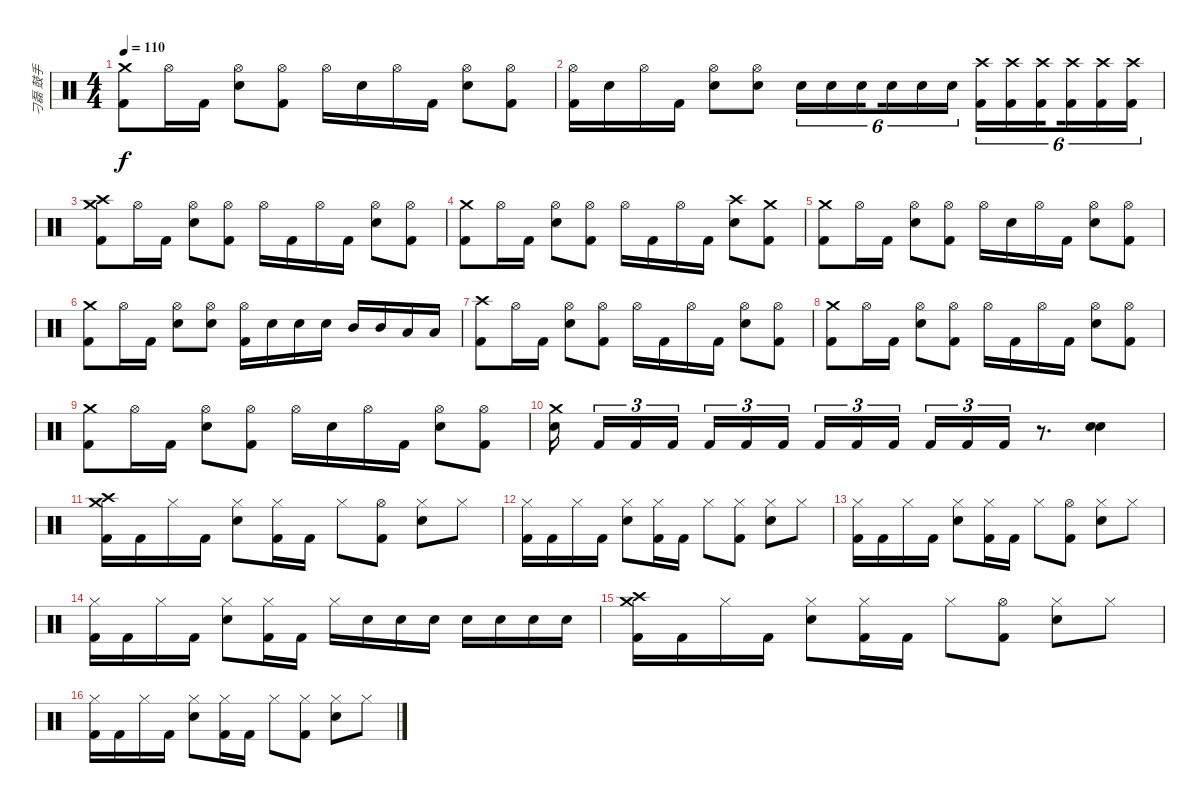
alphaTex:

\track ("刁磊 鼓手" "刁磊 鼓手") {instrument percussion}
\staff {score}
\articulation defaults
\ts (4 4)
\tempo 110
\clef neutral
\ks c
("Crash medium (hit)" "Kick (hit) 2").8{dy f} "Hi-Hat (open)".16 "Kick (hit) 2".16 ("Hi-Hat (open)" "Snare (hit) 2").8 ("Hi-Hat (open)" "Kick (hit) 2").8 "Hi-Hat (open)".16 "Snare (hit) 2".16 "Hi-Hat (open)".16 "Kick (hit) 2".16 ("Hi-Hat (open)" "Snare (hit) 2").8 ("Hi-Hat (open)" "Kick (hit) 2").8 |
("Hi-Hat (open)" "Kick (hit) 2").16 "Snare (hit) 2".16 "Hi-Hat (open)".16 "Kick (hit) 2".16 ("Hi-Hat (open)" "Snare (hit) 2").8 ("Hi-Hat (open)" "Snare (hit) 2").8 "Snare (hit) 2".16{tu (6 4)} "Snare (hit) 2".16{tu (6 4)} "Snare (hit) 2".16{tu (6 4) beam splitsecondary} "Snare (hit) 2".16{tu (6 4)} "Snare (hit) 2".16{tu (6 4)} "Snare (hit) 2".16{tu (6 4)} ("Crash high (hit)" "Kick (hit) 2").16{tu (6 4)} ("Crash high (hit)" "Kick (hit) 2").16{tu (6 4)} ("Crash high (hit)" "Kick (hit) 2").16{tu (6 4) beam splitsecondary} ("Crash high (hit)" "Kick (hit) 2").16{tu (6 4)} ("Crash high (hit)" "Kick (hit) 2").16{tu (6 4)} ("Crash high (hit)" "Kick (hit) 2").16{tu (6 4)} |
("Crash high (hit)" "Crash medium (hit)" "Kick (hit) 2").8 "Hi-Hat (open)".16 "Kick (hit) 2".16 ("Hi-Hat (open)" "Snare (hit) 2").8 ("Hi-Hat (open)" "Kick (hit) 2").8 "Hi-Hat (open)".16 "Kick (hit) 2".16 "Hi-Hat (open)".16 "Kick (hit) 2".16 ("Hi-Hat (open)" "Snare (hit) 2").8 ("Hi-Hat (open)" "Kick (hit) 2").8 |
("Crash medium (hit)" "Kick (hit) 2").8 "Hi-Hat (open)".16 "Kick (hit) 2".16 ("Hi-Hat (open)" "Snare (hit) 2").8 ("Hi-Hat (open)" "Kick (hit) 2").8 "Hi-Hat (open)".16 "Kick (hit) 2".16 "Hi-Hat (open)".16 "Kick (hit) 2".16 ("Crash high (hit)" "Snare (hit) 2").8 ("Crash medium (hit)" "Kick (hit) 2").8 |
("Crash medium (hit)" "Kick (hit) 2").8 "Hi-Hat (open)".16 "Kick (hit) 2".16 ("Hi-Hat (open)" "Snare (hit) 2").8 ("Hi-Hat (open)" "Kick (hit) 2").8 "Hi-Hat (open)".16 "Snare (hit) 2".16 "Hi-Hat (open)".16 "Kick (hit) 2".16 ("Hi-Hat (open)" "Snare (hit) 2").8 ("Hi-Hat (open)" "Kick (hit) 2").8 |
("Crash medium (hit)" "Kick (hit) 2").8 "Hi-Hat (open)".16 "Kick (hit) 2".16 ("Hi-Hat (open)" "Snare (hit) 2").8 ("Hi-Hat (open)" "Snare (hit) 2").8 ("Hi-Hat (open)" "Kick (hit) 2").16 "Snare (hit) 2".16 "Snare (hit) 2".16 "Snare (hit) 2".16 "Mid Tom (hit)".16 "Mid Tom (hit)".16 "Low Tom (hit)".16 "Low Tom (hit)".16 |
("Crash high (hit)" "Kick (hit) 2").8 "Hi-Hat (open)".16 "Kick (hit) 2".16 ("Hi-Hat (open)" "Snare (hit) 2").8 ("Hi-Hat (open)" "Kick (hit) 2").8 "Hi-Hat (open)".16 "Kick (hit) 2".16 "Hi-Hat (open)".16 "Kick (hit) 2".16 ("Hi-Hat (open)" "Snare (hit) 2").8 ("Hi-Hat (open)" "Kick (hit) 2").8 |
("Crash medium (hit)" "Kick (hit) 2").8 "Hi-Hat (open)".16 "Kick (hit) 2".16 ("Hi-Hat (open)" "Snare (hit) 2").8 ("Hi-Hat (open)" "Kick (hit) 2").8 "Hi-Hat (open)".16 "Kick (hit) 2".16 "Hi-Hat (open)".16 "Kick (hit) 2".16 ("Hi-Hat (open)" "Snare (hit) 2").8 ("Hi-Hat (open)" "Kick (hit) 2").8 |
("Crash medium (hit)" "Kick (hit) 2").8 "Hi-Hat (open)".16 "Kick (hit) 2".16 ("Hi-Hat (open)" "Snare (hit) 2").8 ("Hi-Hat (open)" "Kick (hit) 2").8 "Hi-Hat (open)".16 "Snare (hit) 2".16 "Hi-Hat (open)".16 "Kick (hit) 2".16 ("Hi-Hat (open)" "Snare (hit) 2").8 ("Hi-Hat (open)" "Kick (hit) 2").8 |
("Crash medium (hit)" "Snare (hit) 2").16{beam splitsecondary} "Kick (hit) 2".16{tu (3 2)} "Kick (hit) 2".16{tu (3 2)} "Kick (hit) 2".16{tu (3 2) beam splitsecondary} "Kick (hit) 2".16{tu (3 2)} "Kick (hit) 2".16{tu (3 2)} "Kick (hit) 2".16{tu (3 2) beam splitsecondary} "Kick (hit) 2".16{tu (3 2)} "Kick (hit) 2".16{tu (3 2)} "Kick (hit) 2".16{tu (3 2) beam splitsecondary} "Kick (hit) 2".16{tu (3 2)} "Kick (hit) 2".16{tu (3 2)} "Kick (hit) 2".16{tu (3 2)} r.8{d} ("Snare (hit) 2" "Snare (hit) 2").4 |
("Crash high (hit)" "Crash medium (hit)" "Kick (hit) 2").16 "Kick (hit) 2".16 "Hi-Hat (closed)".16 "Kick (hit) 2".16 ("Hi-Hat (closed)" "Snare (hit) 2").8 ("Hi-Hat (closed)" "Kick (hit) 2").16 "Kick (hit) 2".16 "Hi-Hat (closed)".8 ("Hi-Hat (open)" "Kick (hit) 2").8 ("Hi-Hat (closed)" "Snare (hit) 2").8 "Hi-Hat (closed)".8 |
("Hi-Hat (closed)" "Kick (hit) 2").16 "Kick (hit) 2".16 "Hi-Hat (closed)".16 "Kick (hit) 2".16 ("Hi-Hat (closed)" "Snare (hit) 2").8 ("Hi-Hat (closed)" "Kick (hit) 2").16 "Kick (hit) 2".16 "Hi-Hat (closed)".8 ("Hi-Hat (closed)" "Kick (hit) 2").8 ("Hi-Hat (closed)" "Snare (hit) 2").8 "Hi-Hat (closed)".8 |
("Hi-Hat (closed)" "Kick (hit) 2").16 "Kick (hit) 2".16 "Hi-Hat (closed)".16 "Kick (hit) 2".16 ("Hi-Hat (closed)" "Snare (hit) 2").8 ("Hi-Hat (closed)" "Kick (hit) 2").16 "Kick (hit) 2".16 "Hi-Hat (closed)".8 ("Hi-Hat (open)" "Kick (hit) 2").8 ("Hi-Hat (closed)" "Snare (hit) 2").8 "Hi-Hat (closed)".8 |
("Hi-Hat (closed)" "Kick (hit) 2").16 "Kick (hit) 2".16 "Hi-Hat (closed)".16 "Kick (hit) 2".16 ("Hi-Hat (closed)" "Snare (hit) 2").8 ("Hi-Hat (closed)" "Kick (hit) 2").16 "Kick (hit) 2".16 "Hi-Hat (closed)".16 "Snare (hit) 2".16 "Snare (hit) 2".16 "Snare (hit) 2".16 "Snare (hit) 2".16 "Snare (hit) 2".16 "Snare (hit) 2".16 "Snare (hit) 2".16 |
("Crash high (hit)" "Crash medium (hit)" "Kick (hit) 2").16 "Kick (hit) 2".16 "Hi-Hat (closed)".16 "Kick (hit) 2".16 ("Hi-Hat (closed)" "Snare (hit) 2").8 ("Hi-Hat (closed)" "Kick (hit) 2").16 "Kick (hit) 2".16 "Hi-Hat (closed)".8 ("Hi-Hat (open)" "Kick (hit) 2").8 ("Hi-Hat (closed)" "Snare (hit) 2").8 "Hi-Hat (closed)".8 |
("Hi-Hat (closed)" "Kick (hit) 2").16 "Kick (hit) 2".16 "Hi-Hat (closed)".16 "Kick (hit) 2".16 ("Hi-Hat (closed)" "Snare (hit) 2").8 ("Hi-Hat (closed)" "Kick (hit) 2").16 "Kick (hit) 2".16 "Hi-Hat (closed)".8 ("Hi-Hat (closed)" "Kick (hit) 2").8 ("Hi-Hat (closed)" "Snare (hit) 2").8 "Hi-Hat (closed)".8
